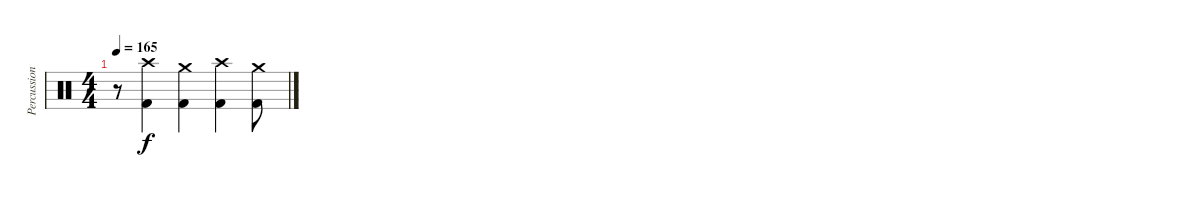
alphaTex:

\track ("Percussion" "Percussion") {instrument percussion}
\staff {score}
\articulation defaults
\ts (4 4)
\tempo 165
\clef neutral
\ks c
r.8{dy f} ("Crash high (hit)" "Kick (hit) 2").4 ("Crash medium (hit)" "Kick (hit) 2").4 ("Crash high (hit)" "Kick (hit) 2").4 ("Crash medium (hit)" "Kick (hit) 2").8
